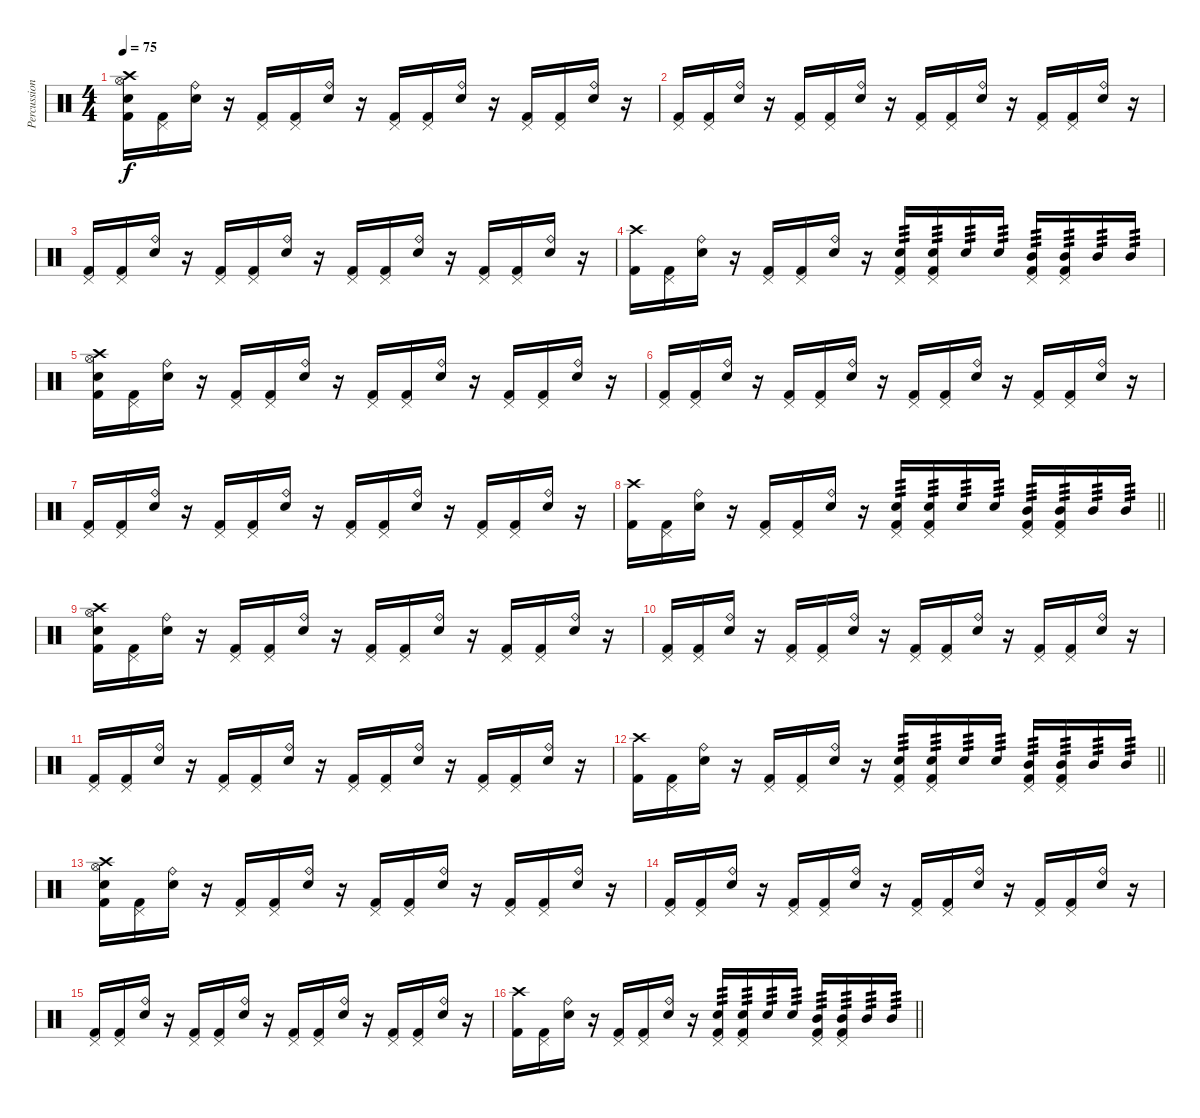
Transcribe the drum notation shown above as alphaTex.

\track ("Percussion" "Percussion") {instrument percussion}
\staff {score}
\articulation defaults
\ts (4 4)
\tempo 75
\clef neutral
\ks c
("Kick (hit) 2" "Snare (hit) 2" "Hi-Hat (open)" "Crash high (hit)").16{dy f} ("Kick (hit) 2" "Pedal Hi-Hat (hit)").16 ("Snare (hit) 2" "Ride (bell)").16 r.16 ("Kick (hit) 2" "Pedal Hi-Hat (hit)").16 ("Kick (hit) 2" "Pedal Hi-Hat (hit)").16 ("Snare (hit) 2" "Ride (bell)").16 r.16 ("Kick (hit) 2" "Pedal Hi-Hat (hit)").16 ("Kick (hit) 2" "Pedal Hi-Hat (hit)").16 ("Snare (hit) 2" "Ride (bell)").16 r.16 ("Kick (hit) 2" "Pedal Hi-Hat (hit)").16 ("Kick (hit) 2" "Pedal Hi-Hat (hit)").16 ("Snare (hit) 2" "Ride (bell)").16 r.16 |
("Kick (hit) 2" "Pedal Hi-Hat (hit)").16 ("Kick (hit) 2" "Pedal Hi-Hat (hit)").16 ("Snare (hit) 2" "Ride (bell)").16 r.16 ("Kick (hit) 2" "Pedal Hi-Hat (hit)").16 ("Kick (hit) 2" "Pedal Hi-Hat (hit)").16 ("Snare (hit) 2" "Ride (bell)").16 r.16 ("Kick (hit) 2" "Pedal Hi-Hat (hit)").16 ("Kick (hit) 2" "Pedal Hi-Hat (hit)").16 ("Snare (hit) 2" "Ride (bell)").16 r.16 ("Kick (hit) 2" "Pedal Hi-Hat (hit)").16 ("Kick (hit) 2" "Pedal Hi-Hat (hit)").16 ("Snare (hit) 2" "Ride (bell)").16 r.16 |
("Kick (hit) 2" "Pedal Hi-Hat (hit)").16 ("Kick (hit) 2" "Pedal Hi-Hat (hit)").16 ("Snare (hit) 2" "Ride (bell)").16 r.16 ("Kick (hit) 2" "Pedal Hi-Hat (hit)").16 ("Kick (hit) 2" "Pedal Hi-Hat (hit)").16 ("Snare (hit) 2" "Ride (bell)").16 r.16 ("Kick (hit) 2" "Pedal Hi-Hat (hit)").16 ("Kick (hit) 2" "Pedal Hi-Hat (hit)").16 ("Snare (hit) 2" "Ride (bell)").16 r.16 ("Kick (hit) 2" "Pedal Hi-Hat (hit)").16 ("Kick (hit) 2" "Pedal Hi-Hat (hit)").16 ("Snare (hit) 2" "Ride (bell)").16 r.16 |
("Kick (hit) 2" "Crash high (hit)").16 ("Kick (hit) 2" "Pedal Hi-Hat (hit)").16 ("Snare (hit) 2" "Ride (bell)").16 r.16 ("Kick (hit) 2" "Pedal Hi-Hat (hit)").16 ("Kick (hit) 2" "Pedal Hi-Hat (hit)").16 ("Snare (hit) 2" "Ride (bell)").16 r.16 ("Kick (hit) 2" "Snare (hit) 2" "Pedal Hi-Hat (hit)").16{tp 3} ("Kick (hit) 2" "Snare (hit) 2" "Pedal Hi-Hat (hit)").16{tp 3} "Snare (hit) 2".16{tp 3} "Snare (hit) 2".16{tp 3} ("Kick (hit) 2" "Mid Tom (hit)" "Pedal Hi-Hat (hit)").16{tp 3} ("Kick (hit) 2" "Mid Tom (hit)" "Pedal Hi-Hat (hit)").16{tp 3} "Mid Tom (hit)".16{tp 3} "Mid Tom (hit)".16{tp 3} |
("Kick (hit) 2" "Snare (hit) 2" "Hi-Hat (open)" "Crash high (hit)").16 ("Kick (hit) 2" "Pedal Hi-Hat (hit)").16 ("Snare (hit) 2" "Ride (bell)").16 r.16 ("Kick (hit) 2" "Pedal Hi-Hat (hit)").16 ("Kick (hit) 2" "Pedal Hi-Hat (hit)").16 ("Snare (hit) 2" "Ride (bell)").16 r.16 ("Kick (hit) 2" "Pedal Hi-Hat (hit)").16 ("Kick (hit) 2" "Pedal Hi-Hat (hit)").16 ("Snare (hit) 2" "Ride (bell)").16 r.16 ("Kick (hit) 2" "Pedal Hi-Hat (hit)").16 ("Kick (hit) 2" "Pedal Hi-Hat (hit)").16 ("Snare (hit) 2" "Ride (bell)").16 r.16 |
("Kick (hit) 2" "Pedal Hi-Hat (hit)").16 ("Kick (hit) 2" "Pedal Hi-Hat (hit)").16 ("Snare (hit) 2" "Ride (bell)").16 r.16 ("Kick (hit) 2" "Pedal Hi-Hat (hit)").16 ("Kick (hit) 2" "Pedal Hi-Hat (hit)").16 ("Snare (hit) 2" "Ride (bell)").16 r.16 ("Kick (hit) 2" "Pedal Hi-Hat (hit)").16 ("Kick (hit) 2" "Pedal Hi-Hat (hit)").16 ("Snare (hit) 2" "Ride (bell)").16 r.16 ("Kick (hit) 2" "Pedal Hi-Hat (hit)").16 ("Kick (hit) 2" "Pedal Hi-Hat (hit)").16 ("Snare (hit) 2" "Ride (bell)").16 r.16 |
("Kick (hit) 2" "Pedal Hi-Hat (hit)").16 ("Kick (hit) 2" "Pedal Hi-Hat (hit)").16 ("Snare (hit) 2" "Ride (bell)").16 r.16 ("Kick (hit) 2" "Pedal Hi-Hat (hit)").16 ("Kick (hit) 2" "Pedal Hi-Hat (hit)").16 ("Snare (hit) 2" "Ride (bell)").16 r.16 ("Kick (hit) 2" "Pedal Hi-Hat (hit)").16 ("Kick (hit) 2" "Pedal Hi-Hat (hit)").16 ("Snare (hit) 2" "Ride (bell)").16 r.16 ("Kick (hit) 2" "Pedal Hi-Hat (hit)").16 ("Kick (hit) 2" "Pedal Hi-Hat (hit)").16 ("Snare (hit) 2" "Ride (bell)").16 r.16 |
\barLineRight lightlight
("Kick (hit) 2" "Crash high (hit)").16 ("Kick (hit) 2" "Pedal Hi-Hat (hit)").16 ("Snare (hit) 2" "Ride (bell)").16 r.16 ("Kick (hit) 2" "Pedal Hi-Hat (hit)").16 ("Kick (hit) 2" "Pedal Hi-Hat (hit)").16 ("Snare (hit) 2" "Ride (bell)").16 r.16 ("Kick (hit) 2" "Snare (hit) 2" "Pedal Hi-Hat (hit)").16{tp 3} ("Kick (hit) 2" "Snare (hit) 2" "Pedal Hi-Hat (hit)").16{tp 3} "Snare (hit) 2".16{tp 3} "Snare (hit) 2".16{tp 3} ("Kick (hit) 2" "Mid Tom (hit)" "Pedal Hi-Hat (hit)").16{tp 3} ("Kick (hit) 2" "Mid Tom (hit)" "Pedal Hi-Hat (hit)").16{tp 3} "Mid Tom (hit)".16{tp 3} "Mid Tom (hit)".16{tp 3} |
("Kick (hit) 2" "Snare (hit) 2" "Hi-Hat (open)" "Crash high (hit)").16 ("Kick (hit) 2" "Pedal Hi-Hat (hit)").16 ("Snare (hit) 2" "Ride (bell)").16 r.16 ("Kick (hit) 2" "Pedal Hi-Hat (hit)").16 ("Kick (hit) 2" "Pedal Hi-Hat (hit)").16 ("Snare (hit) 2" "Ride (bell)").16 r.16 ("Kick (hit) 2" "Pedal Hi-Hat (hit)").16 ("Kick (hit) 2" "Pedal Hi-Hat (hit)").16 ("Snare (hit) 2" "Ride (bell)").16 r.16 ("Kick (hit) 2" "Pedal Hi-Hat (hit)").16 ("Kick (hit) 2" "Pedal Hi-Hat (hit)").16 ("Snare (hit) 2" "Ride (bell)").16 r.16 |
("Kick (hit) 2" "Pedal Hi-Hat (hit)").16 ("Kick (hit) 2" "Pedal Hi-Hat (hit)").16 ("Snare (hit) 2" "Ride (bell)").16 r.16 ("Kick (hit) 2" "Pedal Hi-Hat (hit)").16 ("Kick (hit) 2" "Pedal Hi-Hat (hit)").16 ("Snare (hit) 2" "Ride (bell)").16 r.16 ("Kick (hit) 2" "Pedal Hi-Hat (hit)").16 ("Kick (hit) 2" "Pedal Hi-Hat (hit)").16 ("Snare (hit) 2" "Ride (bell)").16 r.16 ("Kick (hit) 2" "Pedal Hi-Hat (hit)").16 ("Kick (hit) 2" "Pedal Hi-Hat (hit)").16 ("Snare (hit) 2" "Ride (bell)").16 r.16 |
("Kick (hit) 2" "Pedal Hi-Hat (hit)").16 ("Kick (hit) 2" "Pedal Hi-Hat (hit)").16 ("Snare (hit) 2" "Ride (bell)").16 r.16 ("Kick (hit) 2" "Pedal Hi-Hat (hit)").16 ("Kick (hit) 2" "Pedal Hi-Hat (hit)").16 ("Snare (hit) 2" "Ride (bell)").16 r.16 ("Kick (hit) 2" "Pedal Hi-Hat (hit)").16 ("Kick (hit) 2" "Pedal Hi-Hat (hit)").16 ("Snare (hit) 2" "Ride (bell)").16 r.16 ("Kick (hit) 2" "Pedal Hi-Hat (hit)").16 ("Kick (hit) 2" "Pedal Hi-Hat (hit)").16 ("Snare (hit) 2" "Ride (bell)").16 r.16 |
\barLineRight lightlight
("Kick (hit) 2" "Crash high (hit)").16 ("Kick (hit) 2" "Pedal Hi-Hat (hit)").16 ("Snare (hit) 2" "Ride (bell)").16 r.16 ("Kick (hit) 2" "Pedal Hi-Hat (hit)").16 ("Kick (hit) 2" "Pedal Hi-Hat (hit)").16 ("Snare (hit) 2" "Ride (bell)").16 r.16 ("Kick (hit) 2" "Snare (hit) 2" "Pedal Hi-Hat (hit)").16{tp 3} ("Kick (hit) 2" "Snare (hit) 2" "Pedal Hi-Hat (hit)").16{tp 3} "Snare (hit) 2".16{tp 3} "Snare (hit) 2".16{tp 3} ("Kick (hit) 2" "Mid Tom (hit)" "Pedal Hi-Hat (hit)").16{tp 3} ("Kick (hit) 2" "Mid Tom (hit)" "Pedal Hi-Hat (hit)").16{tp 3} "Mid Tom (hit)".16{tp 3} "Mid Tom (hit)".16{tp 3} |
("Kick (hit) 2" "Snare (hit) 2" "Hi-Hat (open)" "Crash high (hit)").16 ("Kick (hit) 2" "Pedal Hi-Hat (hit)").16 ("Snare (hit) 2" "Ride (bell)").16 r.16 ("Kick (hit) 2" "Pedal Hi-Hat (hit)").16 ("Kick (hit) 2" "Pedal Hi-Hat (hit)").16 ("Snare (hit) 2" "Ride (bell)").16 r.16 ("Kick (hit) 2" "Pedal Hi-Hat (hit)").16 ("Kick (hit) 2" "Pedal Hi-Hat (hit)").16 ("Snare (hit) 2" "Ride (bell)").16 r.16 ("Kick (hit) 2" "Pedal Hi-Hat (hit)").16 ("Kick (hit) 2" "Pedal Hi-Hat (hit)").16 ("Snare (hit) 2" "Ride (bell)").16 r.16 |
("Kick (hit) 2" "Pedal Hi-Hat (hit)").16 ("Kick (hit) 2" "Pedal Hi-Hat (hit)").16 ("Snare (hit) 2" "Ride (bell)").16 r.16 ("Kick (hit) 2" "Pedal Hi-Hat (hit)").16 ("Kick (hit) 2" "Pedal Hi-Hat (hit)").16 ("Snare (hit) 2" "Ride (bell)").16 r.16 ("Kick (hit) 2" "Pedal Hi-Hat (hit)").16 ("Kick (hit) 2" "Pedal Hi-Hat (hit)").16 ("Snare (hit) 2" "Ride (bell)").16 r.16 ("Kick (hit) 2" "Pedal Hi-Hat (hit)").16 ("Kick (hit) 2" "Pedal Hi-Hat (hit)").16 ("Snare (hit) 2" "Ride (bell)").16 r.16 |
("Kick (hit) 2" "Pedal Hi-Hat (hit)").16 ("Kick (hit) 2" "Pedal Hi-Hat (hit)").16 ("Snare (hit) 2" "Ride (bell)").16 r.16 ("Kick (hit) 2" "Pedal Hi-Hat (hit)").16 ("Kick (hit) 2" "Pedal Hi-Hat (hit)").16 ("Snare (hit) 2" "Ride (bell)").16 r.16 ("Kick (hit) 2" "Pedal Hi-Hat (hit)").16 ("Kick (hit) 2" "Pedal Hi-Hat (hit)").16 ("Snare (hit) 2" "Ride (bell)").16 r.16 ("Kick (hit) 2" "Pedal Hi-Hat (hit)").16 ("Kick (hit) 2" "Pedal Hi-Hat (hit)").16 ("Snare (hit) 2" "Ride (bell)").16 r.16 |
\barLineRight lightlight
("Kick (hit) 2" "Crash high (hit)").16 ("Kick (hit) 2" "Pedal Hi-Hat (hit)").16 ("Snare (hit) 2" "Ride (bell)").16 r.16 ("Kick (hit) 2" "Pedal Hi-Hat (hit)").16 ("Kick (hit) 2" "Pedal Hi-Hat (hit)").16 ("Snare (hit) 2" "Ride (bell)").16 r.16 ("Kick (hit) 2" "Snare (hit) 2" "Pedal Hi-Hat (hit)").16{tp 3} ("Kick (hit) 2" "Snare (hit) 2" "Pedal Hi-Hat (hit)").16{tp 3} "Snare (hit) 2".16{tp 3} "Snare (hit) 2".16{tp 3} ("Kick (hit) 2" "Mid Tom (hit)" "Pedal Hi-Hat (hit)").16{tp 3} ("Kick (hit) 2" "Mid Tom (hit)" "Pedal Hi-Hat (hit)").16{tp 3} "Mid Tom (hit)".16{tp 3} "Mid Tom (hit)".16{tp 3}
